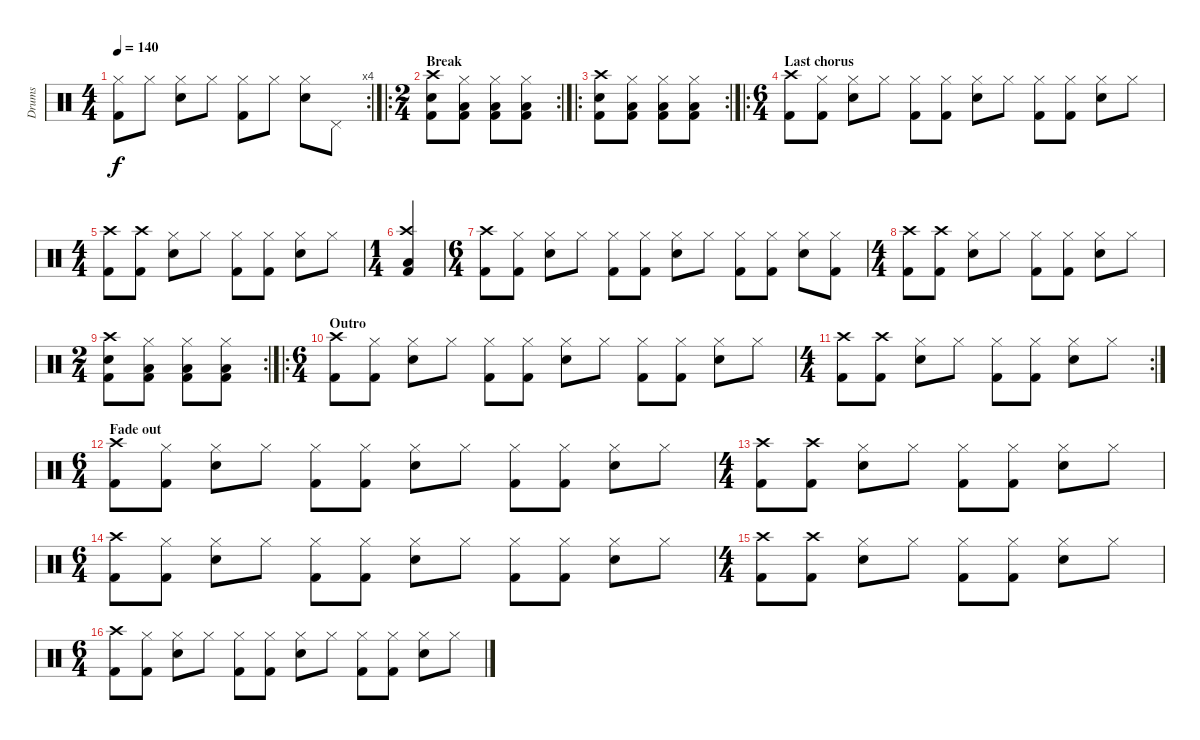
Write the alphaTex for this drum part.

\track ("Drums" "Drums") {instrument percussion}
\staff {score}
\articulation defaults
\rc 4
\ts (4 4)
\tempo 140
\clef neutral
\ks c
("Hi-Hat (closed)" "Kick (hit) 2").8{dy f} "Hi-Hat (closed)".8 ("Hi-Hat (closed)" "Snare (hit) 2").8 "Hi-Hat (closed)".8 ("Hi-Hat (closed)" "Kick (hit) 2").8 "Hi-Hat (closed)".8 ("Hi-Hat (closed)" "Snare (hit) 2").8 "Pedal Hi-Hat (hit)".8 |
\ro
\rc 2
\ts (2 4)
\section ("" "Break")
("Crash high (hit)" "Snare (hit) 2" "Kick (hit) 2").8 ("Hi-Hat (closed)" "Low Floor Tom (hit)" "Kick (hit) 2").8 ("Hi-Hat (closed)" "Low Floor Tom (hit)" "Kick (hit) 2").8 ("Hi-Hat (closed)" "Low Floor Tom (hit)" "Kick (hit) 2").8 |
\ro
\rc 2
("Crash high (hit)" "Snare (hit) 2" "Kick (hit) 2").8 ("Hi-Hat (closed)" "Low Floor Tom (hit)" "Kick (hit) 2").8 ("Hi-Hat (closed)" "Low Floor Tom (hit)" "Kick (hit) 2").8 ("Hi-Hat (closed)" "Low Floor Tom (hit)" "Kick (hit) 2").8 |
\ro
\ts (6 4)
\section ("" "Last chorus")
("Crash high (hit)" "Kick (hit) 2").8 ("Hi-Hat (closed)" "Kick (hit) 2").8 ("Hi-Hat (closed)" "Snare (hit) 2").8 "Hi-Hat (closed)".8 ("Hi-Hat (closed)" "Kick (hit) 2").8 ("Hi-Hat (closed)" "Kick (hit) 2").8 ("Hi-Hat (closed)" "Snare (hit) 2").8 "Hi-Hat (closed)".8 ("Hi-Hat (closed)" "Kick (hit) 2").8 ("Hi-Hat (closed)" "Kick (hit) 2").8 ("Hi-Hat (closed)" "Snare (hit) 2").8 "Hi-Hat (closed)".8 |
\ts (4 4)
("Crash high (hit)" "Kick (hit) 2").8 ("Crash high (hit)" "Kick (hit) 2").8 ("Hi-Hat (closed)" "Snare (hit) 2").8 "Hi-Hat (closed)".8 ("Hi-Hat (closed)" "Kick (hit) 2").8 ("Hi-Hat (closed)" "Kick (hit) 2").8 ("Hi-Hat (closed)" "Snare (hit) 2").8 "Hi-Hat (closed)".8 |
\ts (1 4)
("Crash high (hit)" "Low Floor Tom (hit)" "Kick (hit) 2").4 |
\ts (6 4)
("Crash high (hit)" "Kick (hit) 2").8 ("Hi-Hat (closed)" "Kick (hit) 2").8 ("Hi-Hat (closed)" "Snare (hit) 2").8 "Hi-Hat (closed)".8 ("Hi-Hat (closed)" "Kick (hit) 2").8 ("Hi-Hat (closed)" "Kick (hit) 2").8 ("Hi-Hat (closed)" "Snare (hit) 2").8 "Hi-Hat (closed)".8 ("Hi-Hat (closed)" "Kick (hit) 2").8 ("Hi-Hat (closed)" "Kick (hit) 2").8 ("Hi-Hat (closed)" "Snare (hit) 2").8 ("Hi-Hat (closed)" "Kick (hit) 2").8 |
\ts (4 4)
("Crash high (hit)" "Kick (hit) 2").8 ("Crash high (hit)" "Kick (hit) 2").8 ("Hi-Hat (closed)" "Snare (hit) 2").8 "Hi-Hat (closed)".8 ("Hi-Hat (closed)" "Kick (hit) 2").8 ("Hi-Hat (closed)" "Kick (hit) 2").8 ("Hi-Hat (closed)" "Snare (hit) 2").8 "Hi-Hat (closed)".8 |
\rc 2
\ts (2 4)
("Crash high (hit)" "Snare (hit) 2" "Kick (hit) 2").8 ("Hi-Hat (closed)" "Low Floor Tom (hit)" "Kick (hit) 2").8 ("Hi-Hat (closed)" "Low Floor Tom (hit)" "Kick (hit) 2").8 ("Hi-Hat (closed)" "Low Floor Tom (hit)" "Kick (hit) 2").8 |
\ro
\ts (6 4)
\section ("" "Outro")
("Crash high (hit)" "Kick (hit) 2").8 ("Hi-Hat (closed)" "Kick (hit) 2").8 ("Hi-Hat (closed)" "Snare (hit) 2").8 "Hi-Hat (closed)".8 ("Hi-Hat (closed)" "Kick (hit) 2").8 ("Hi-Hat (closed)" "Kick (hit) 2").8 ("Hi-Hat (closed)" "Snare (hit) 2").8 "Hi-Hat (closed)".8 ("Hi-Hat (closed)" "Kick (hit) 2").8 ("Hi-Hat (closed)" "Kick (hit) 2").8 ("Hi-Hat (closed)" "Snare (hit) 2").8 "Hi-Hat (closed)".8 |
\rc 2
\ts (4 4)
("Crash high (hit)" "Kick (hit) 2").8 ("Crash high (hit)" "Kick (hit) 2").8 ("Hi-Hat (closed)" "Snare (hit) 2").8 "Hi-Hat (closed)".8 ("Hi-Hat (closed)" "Kick (hit) 2").8 ("Hi-Hat (closed)" "Kick (hit) 2").8 ("Hi-Hat (closed)" "Snare (hit) 2").8 "Hi-Hat (closed)".8 |
\ts (6 4)
\section ("" "Fade out")
("Crash high (hit)" "Kick (hit) 2").8{volume 11} ("Hi-Hat (closed)" "Kick (hit) 2").8 ("Hi-Hat (closed)" "Snare (hit) 2").8 "Hi-Hat (closed)".8 ("Hi-Hat (closed)" "Kick (hit) 2").8 ("Hi-Hat (closed)" "Kick (hit) 2").8 ("Hi-Hat (closed)" "Snare (hit) 2").8 "Hi-Hat (closed)".8 ("Hi-Hat (closed)" "Kick (hit) 2").8 ("Hi-Hat (closed)" "Kick (hit) 2").8 ("Hi-Hat (closed)" "Snare (hit) 2").8 "Hi-Hat (closed)".8 |
\ts (4 4)
("Crash high (hit)" "Kick (hit) 2").8{volume 9} ("Crash high (hit)" "Kick (hit) 2").8 ("Hi-Hat (closed)" "Snare (hit) 2").8 "Hi-Hat (closed)".8 ("Hi-Hat (closed)" "Kick (hit) 2").8 ("Hi-Hat (closed)" "Kick (hit) 2").8 ("Hi-Hat (closed)" "Snare (hit) 2").8 "Hi-Hat (closed)".8 |
\ts (6 4)
("Crash high (hit)" "Kick (hit) 2").8{volume 7} ("Hi-Hat (closed)" "Kick (hit) 2").8 ("Hi-Hat (closed)" "Snare (hit) 2").8 "Hi-Hat (closed)".8 ("Hi-Hat (closed)" "Kick (hit) 2").8 ("Hi-Hat (closed)" "Kick (hit) 2").8 ("Hi-Hat (closed)" "Snare (hit) 2").8 "Hi-Hat (closed)".8 ("Hi-Hat (closed)" "Kick (hit) 2").8 ("Hi-Hat (closed)" "Kick (hit) 2").8 ("Hi-Hat (closed)" "Snare (hit) 2").8 "Hi-Hat (closed)".8 |
\ts (4 4)
("Crash high (hit)" "Kick (hit) 2").8{volume 5} ("Crash high (hit)" "Kick (hit) 2").8 ("Hi-Hat (closed)" "Snare (hit) 2").8 "Hi-Hat (closed)".8 ("Hi-Hat (closed)" "Kick (hit) 2").8 ("Hi-Hat (closed)" "Kick (hit) 2").8 ("Hi-Hat (closed)" "Snare (hit) 2").8 "Hi-Hat (closed)".8 |
\ts (6 4)
("Crash high (hit)" "Kick (hit) 2").8{volume 3} ("Hi-Hat (closed)" "Kick (hit) 2").8 ("Hi-Hat (closed)" "Snare (hit) 2").8 "Hi-Hat (closed)".8 ("Hi-Hat (closed)" "Kick (hit) 2").8 ("Hi-Hat (closed)" "Kick (hit) 2").8 ("Hi-Hat (closed)" "Snare (hit) 2").8 "Hi-Hat (closed)".8 ("Hi-Hat (closed)" "Kick (hit) 2").8 ("Hi-Hat (closed)" "Kick (hit) 2").8 ("Hi-Hat (closed)" "Snare (hit) 2").8 "Hi-Hat (closed)".8
